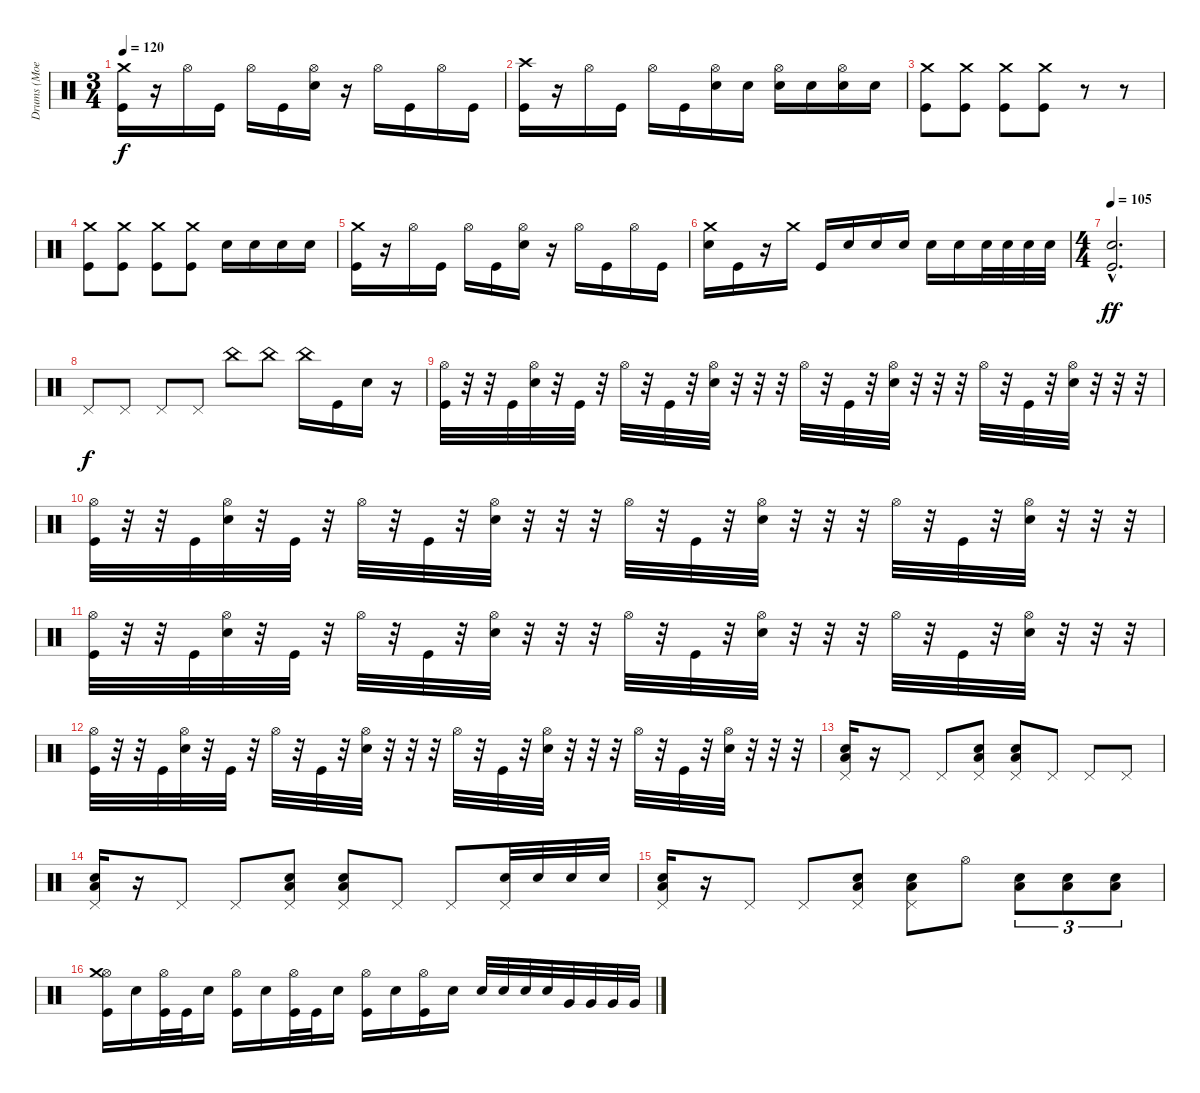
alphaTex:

\track ("Drums (Moe)" "Drums (Moe") {instrument percussion}
\staff {score}
\articulation defaults
\ts (3 4)
\tempo 120
\clef neutral
\ks c
("Kick (hit)" "Crash medium (hit)").16{dy f} r.16 "Hi-Hat (open)".16 "Kick (hit)".16 "Hi-Hat (open)".16 "Kick (hit)".16 ("Snare (hit) 2" "Hi-Hat (open)").16 r.16 "Hi-Hat (open)".16 "Kick (hit)".16 "Hi-Hat (open)".16 "Kick (hit)".16 |
("Kick (hit)" "Crash high (hit)").16 r.16 "Hi-Hat (open)".16 "Kick (hit)".16 "Hi-Hat (open)".16 "Kick (hit)".16 ("Snare (hit) 2" "Hi-Hat (open)").16 "Snare (hit) 2".16 ("Snare (hit) 2" "Hi-Hat (open)").16 "Snare (hit) 2".16 ("Snare (hit) 2" "Hi-Hat (open)").16 "Snare (hit) 2".16 |
("Kick (hit)" "Crash medium (hit)").8 ("Kick (hit)" "Crash medium (hit)").8 ("Kick (hit)" "Crash medium (hit)").8 ("Kick (hit)" "Crash medium (hit)").8 r.8 r.8 |
("Kick (hit)" "Crash medium (hit)").8 ("Kick (hit)" "Crash medium (hit)").8 ("Kick (hit)" "Crash medium (hit)").8 ("Kick (hit)" "Crash medium (hit)").8 "Snare (hit) 2".16 "Snare (hit) 2".16 "Snare (hit) 2".16 "Snare (hit) 2".16 |
("Kick (hit)" "Crash medium (hit)").16 r.16 "Hi-Hat (open)".16 "Kick (hit)".16 "Hi-Hat (open)".16 "Kick (hit)".16 ("Snare (hit) 2" "Hi-Hat (open)").16 r.16 "Hi-Hat (open)".16 "Kick (hit)".16 "Hi-Hat (open)".16 "Kick (hit)".16 |
("Snare (hit) 2" "Crash medium (hit)").16 "Kick (hit)".16 r.16 "Crash medium (hit)".16 "Kick (hit)".16 "Snare (hit) 2".16 "Snare (hit) 2".16 "Snare (hit) 2".16 "Snare (hit) 2".16 "Snare (hit) 2".16 "Snare (hit) 2".32 "Snare (hit) 2".32 "Snare (hit) 2".32 "Snare (hit) 2".32 |
\ts (4 4)
\tempo 105
("Kick (hit)"{hac} "Snare (hit) 2"{hac}).2{d dy ff} |
"Pedal Hi-Hat (hit)".8{dy f} "Pedal Hi-Hat (hit)".8 "Pedal Hi-Hat (hit)".8 "Pedal Hi-Hat (hit)".8 "China (hit)".8 "China (hit)".8 "China (hit)".16 "Kick (hit)".16 "Snare (hit) 2".16 r.16 |
("Kick (hit)" "Hi-Hat (open)").32 r.32 r.32 "Kick (hit)".32 ("Snare (hit) 2" "Hi-Hat (open)").32 r.32 "Kick (hit)".32 r.32 "Hi-Hat (open)".32 r.32 "Kick (hit)".32 r.32 ("Snare (hit) 2" "Hi-Hat (open)").32 r.32 r.32 r.32 "Hi-Hat (open)".32 r.32 "Kick (hit)".32 r.32 ("Snare (hit) 2" "Hi-Hat (open)").32 r.32 r.32 r.32 "Hi-Hat (open)".32 r.32 "Kick (hit)".32 r.32 ("Snare (hit) 2" "Hi-Hat (open)").32 r.32 r.32 r.32 |
("Kick (hit)" "Hi-Hat (open)").32 r.32 r.32 "Kick (hit)".32 ("Snare (hit) 2" "Hi-Hat (open)").32 r.32 "Kick (hit)".32 r.32 "Hi-Hat (open)".32 r.32 "Kick (hit)".32 r.32 ("Snare (hit) 2" "Hi-Hat (open)").32 r.32 r.32 r.32 "Hi-Hat (open)".32 r.32 "Kick (hit)".32 r.32 ("Snare (hit) 2" "Hi-Hat (open)").32 r.32 r.32 r.32 "Hi-Hat (open)".32 r.32 "Kick (hit)".32 r.32 ("Snare (hit) 2" "Hi-Hat (open)").32 r.32 r.32 r.32 |
("Kick (hit)" "Hi-Hat (open)").32 r.32 r.32 "Kick (hit)".32 ("Snare (hit) 2" "Hi-Hat (open)").32 r.32 "Kick (hit)".32 r.32 "Hi-Hat (open)".32 r.32 "Kick (hit)".32 r.32 ("Snare (hit) 2" "Hi-Hat (open)").32 r.32 r.32 r.32 "Hi-Hat (open)".32 r.32 "Kick (hit)".32 r.32 ("Snare (hit) 2" "Hi-Hat (open)").32 r.32 r.32 r.32 "Hi-Hat (open)".32 r.32 "Kick (hit)".32 r.32 ("Snare (hit) 2" "Hi-Hat (open)").32 r.32 r.32 r.32 |
("Kick (hit)" "Hi-Hat (open)").32 r.32 r.32 "Kick (hit)".32 ("Snare (hit) 2" "Hi-Hat (open)").32 r.32 "Kick (hit)".32 r.32 "Hi-Hat (open)".32 r.32 "Kick (hit)".32 r.32 ("Snare (hit) 2" "Hi-Hat (open)").32 r.32 r.32 r.32 "Hi-Hat (open)".32 r.32 "Kick (hit)".32 r.32 ("Snare (hit) 2" "Hi-Hat (open)").32 r.32 r.32 r.32 "Hi-Hat (open)".32 r.32 "Kick (hit)".32 r.32 ("Snare (hit) 2" "Hi-Hat (open)").32 r.32 r.32 r.32 |
("Snare (hit) 2" "Low Floor Tom (hit)" "Pedal Hi-Hat (hit)").16 r.16 "Pedal Hi-Hat (hit)".8 "Pedal Hi-Hat (hit)".8 ("Snare (hit) 2" "Low Floor Tom (hit)" "Pedal Hi-Hat (hit)").8 ("Snare (hit) 2" "Low Floor Tom (hit)" "Pedal Hi-Hat (hit)").8 "Pedal Hi-Hat (hit)".8 "Pedal Hi-Hat (hit)".8 "Pedal Hi-Hat (hit)".8 |
("Snare (hit) 2" "Low Floor Tom (hit)" "Pedal Hi-Hat (hit)").16 r.16 "Pedal Hi-Hat (hit)".8 "Pedal Hi-Hat (hit)".8 ("Snare (hit) 2" "Low Floor Tom (hit)" "Pedal Hi-Hat (hit)").8 ("Snare (hit) 2" "Low Floor Tom (hit)" "Pedal Hi-Hat (hit)").8 "Pedal Hi-Hat (hit)".8 "Pedal Hi-Hat (hit)".8 ("Snare (hit) 2" "Pedal Hi-Hat (hit)").32 "Snare (hit) 2".32 "Snare (hit) 2".32 "Snare (hit) 2".32 |
("Snare (hit) 2" "Low Floor Tom (hit)" "Pedal Hi-Hat (hit)").16 r.16 "Pedal Hi-Hat (hit)".8 "Pedal Hi-Hat (hit)".8 ("Snare (hit) 2" "Low Floor Tom (hit)" "Pedal Hi-Hat (hit)").8 ("Snare (hit) 2" "Low Floor Tom (hit)" "Pedal Hi-Hat (hit)").8 "Hi-Hat (open)".8 ("Snare (hit) 2" "Low Floor Tom (hit)").8{tu (3 2)} ("Snare (hit) 2" "Low Floor Tom (hit)").8{tu (3 2)} ("Snare (hit) 2" "Low Floor Tom (hit)").8{tu (3 2)} |
("Kick (hit)" "Hi-Hat (open)" "Crash medium (hit)").16 "Snare (hit) 2".16 ("Kick (hit)" "Hi-Hat (open)").32 "Kick (hit)".32 "Snare (hit) 2".16 ("Kick (hit)" "Hi-Hat (open)").16 "Snare (hit) 2".16 ("Kick (hit)" "Hi-Hat (open)").32 "Kick (hit)".32 "Snare (hit) 2".16 ("Kick (hit)" "Hi-Hat (open)").16 "Snare (hit) 2".16 ("Kick (hit)" "Hi-Hat (open)").16 "Snare (hit) 2".16 "Snare (hit) 2".32 "Snare (hit) 2".32 "Snare (hit) 2".32 "Snare (hit) 2".32 "Very Low Tom (hit)".32 "Very Low Tom (hit)".32 "Very Low Tom (hit)".32 "Very Low Tom (hit)".32
